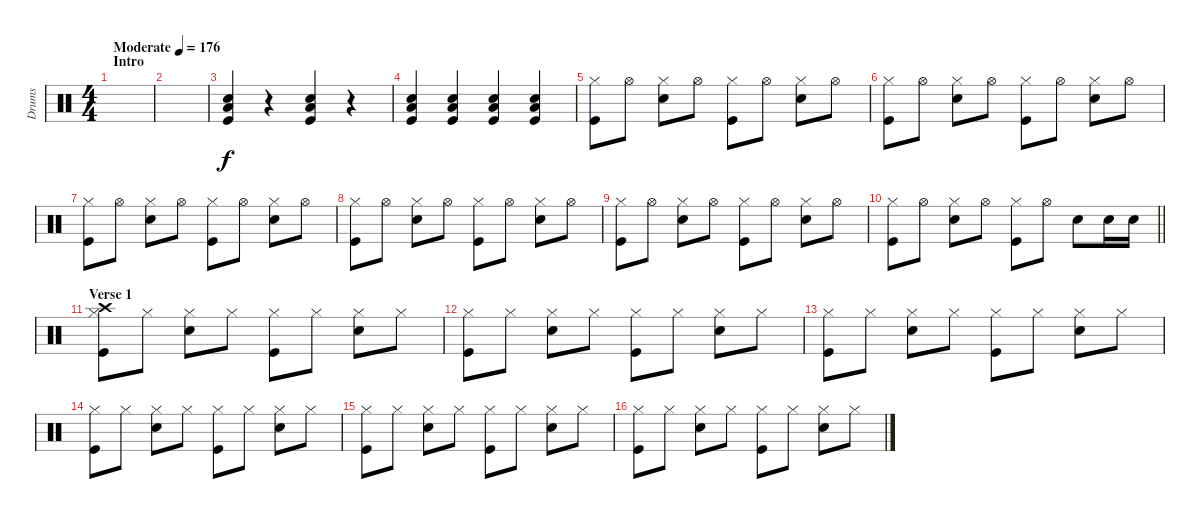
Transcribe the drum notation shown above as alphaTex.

\track ("Drums" "Drums") {instrument percussion}
\staff {score}
\articulation defaults
\ts (4 4)
\section ("" "Intro")
\tempo (176 "Moderate")
\clef neutral
\ks c
|
|
("Electric Snare (hit)" "Low Floor Tom (hit)" "Kick (hit)").4 r.4 ("Electric Snare (hit)" "Low Floor Tom (hit)" "Kick (hit)").4 r.4 |
("Electric Snare (hit)" "Low Floor Tom (hit)" "Kick (hit)").4 ("Electric Snare (hit)" "Low Floor Tom (hit)" "Kick (hit)").4 ("Electric Snare (hit)" "Low Floor Tom (hit)" "Kick (hit)").4 ("Electric Snare (hit)" "Low Floor Tom (hit)" "Kick (hit)").4 |
("Hi-Hat (closed)" "Kick (hit)").8 "Hi-Hat (open)".8 ("Hi-Hat (closed)" "Electric Snare (hit)").8 "Hi-Hat (open)".8 ("Hi-Hat (closed)" "Kick (hit)").8 "Hi-Hat (open)".8 ("Hi-Hat (closed)" "Electric Snare (hit)").8 "Hi-Hat (open)".8 |
("Hi-Hat (closed)" "Kick (hit)").8 "Hi-Hat (open)".8 ("Hi-Hat (closed)" "Electric Snare (hit)").8 "Hi-Hat (open)".8 ("Hi-Hat (closed)" "Kick (hit)").8 "Hi-Hat (open)".8 ("Hi-Hat (closed)" "Electric Snare (hit)").8 "Hi-Hat (open)".8 |
("Hi-Hat (closed)" "Kick (hit)").8 "Hi-Hat (open)".8 ("Hi-Hat (closed)" "Electric Snare (hit)").8 "Hi-Hat (open)".8 ("Hi-Hat (closed)" "Kick (hit)").8 "Hi-Hat (open)".8 ("Hi-Hat (closed)" "Electric Snare (hit)").8 "Hi-Hat (open)".8 |
("Hi-Hat (closed)" "Kick (hit)").8 "Hi-Hat (open)".8 ("Hi-Hat (closed)" "Electric Snare (hit)").8 "Hi-Hat (open)".8 ("Hi-Hat (closed)" "Kick (hit)").8 "Hi-Hat (open)".8 ("Hi-Hat (closed)" "Electric Snare (hit)").8 "Hi-Hat (open)".8 |
("Hi-Hat (closed)" "Kick (hit)").8 "Hi-Hat (open)".8 ("Hi-Hat (closed)" "Electric Snare (hit)").8 "Hi-Hat (open)".8 ("Hi-Hat (closed)" "Kick (hit)").8 "Hi-Hat (open)".8 ("Hi-Hat (closed)" "Electric Snare (hit)").8 "Hi-Hat (open)".8 |
\barLineRight lightlight
("Hi-Hat (closed)" "Kick (hit)").8 "Hi-Hat (open)".8 ("Hi-Hat (closed)" "Electric Snare (hit)").8 "Hi-Hat (open)".8 ("Hi-Hat (closed)" "Kick (hit)").8 "Hi-Hat (open)".8 "Electric Snare (hit)".8 "Electric Snare (hit)".16 "Electric Snare (hit)".16 |
\section ("" "Verse 1")
("Crash high (hit)" "Hi-Hat (closed)" "Kick (hit)").8 "Hi-Hat (closed)".8 ("Hi-Hat (closed)" "Electric Snare (hit)").8 "Hi-Hat (closed)".8 ("Hi-Hat (closed)" "Kick (hit)").8 "Hi-Hat (closed)".8 ("Hi-Hat (closed)" "Electric Snare (hit)").8 "Hi-Hat (closed)".8 |
("Hi-Hat (closed)" "Kick (hit)").8 "Hi-Hat (closed)".8 ("Hi-Hat (closed)" "Electric Snare (hit)").8 "Hi-Hat (closed)".8 ("Hi-Hat (closed)" "Kick (hit)").8 "Hi-Hat (closed)".8 ("Hi-Hat (closed)" "Electric Snare (hit)").8 "Hi-Hat (closed)".8 |
("Hi-Hat (closed)" "Kick (hit)").8 "Hi-Hat (closed)".8 ("Hi-Hat (closed)" "Electric Snare (hit)").8 "Hi-Hat (closed)".8 ("Hi-Hat (closed)" "Kick (hit)").8 "Hi-Hat (closed)".8 ("Hi-Hat (closed)" "Electric Snare (hit)").8 "Hi-Hat (closed)".8 |
("Hi-Hat (closed)" "Kick (hit)").8 "Hi-Hat (closed)".8 ("Hi-Hat (closed)" "Electric Snare (hit)").8 "Hi-Hat (closed)".8 ("Hi-Hat (closed)" "Kick (hit)").8 "Hi-Hat (closed)".8 ("Hi-Hat (closed)" "Electric Snare (hit)").8 "Hi-Hat (closed)".8 |
("Hi-Hat (closed)" "Kick (hit)").8 "Hi-Hat (closed)".8 ("Hi-Hat (closed)" "Electric Snare (hit)").8 "Hi-Hat (closed)".8 ("Hi-Hat (closed)" "Kick (hit)").8 "Hi-Hat (closed)".8 ("Hi-Hat (closed)" "Electric Snare (hit)").8 "Hi-Hat (closed)".8 |
("Hi-Hat (closed)" "Kick (hit)").8 "Hi-Hat (closed)".8 ("Hi-Hat (closed)" "Electric Snare (hit)").8 "Hi-Hat (closed)".8 ("Hi-Hat (closed)" "Kick (hit)").8 "Hi-Hat (closed)".8 ("Hi-Hat (closed)" "Electric Snare (hit)").8 "Hi-Hat (closed)".8
